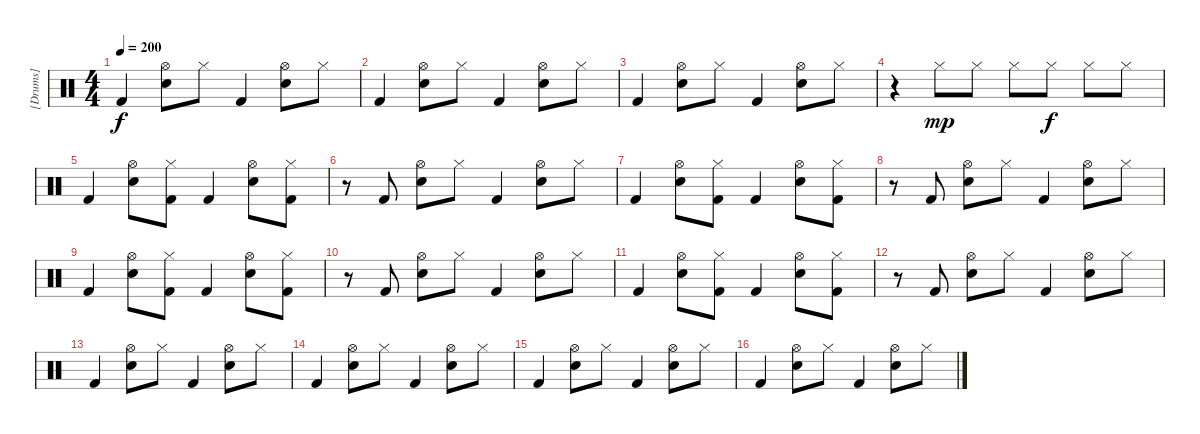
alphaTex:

\track ("[Drums]" "[Drums]") {instrument percussion}
\staff {score}
\articulation defaults
\ts (4 4)
\tempo 200
\clef neutral
\ks c "Kick (hit) 2".4{dy f}
("Hi-Hat (open)" "Electric Snare (hit)").8 "Hi-Hat (closed)".8 "Kick (hit) 2".4 ("Hi-Hat (open)" "Electric Snare (hit)").8 "Hi-Hat (closed)".8 |
"Kick (hit) 2".4 ("Hi-Hat (open)" "Electric Snare (hit)").8 "Hi-Hat (closed)".8 "Kick (hit) 2".4 ("Hi-Hat (open)" "Electric Snare (hit)").8 "Hi-Hat (closed)".8 |
"Kick (hit) 2".4 ("Hi-Hat (open)" "Electric Snare (hit)").8 "Hi-Hat (closed)".8 "Kick (hit) 2".4 ("Hi-Hat (open)" "Electric Snare (hit)").8 "Hi-Hat (closed)".8 |
r.4 "Hi-Hat (closed)".8{dy mp} "Hi-Hat (closed)".8 "Hi-Hat (closed)".8 "Hi-Hat (closed)".8{dy f} "Hi-Hat (closed)".8 "Hi-Hat (closed)".8 |
"Kick (hit) 2".4 ("Hi-Hat (open)" "Electric Snare (hit)").8 ("Hi-Hat (closed)" "Kick (hit) 2").8 "Kick (hit) 2".4 ("Hi-Hat (open)" "Electric Snare (hit)").8 ("Hi-Hat (closed)" "Kick (hit) 2").8 |
r.8 "Kick (hit) 2".8 ("Hi-Hat (open)" "Electric Snare (hit)").8 "Hi-Hat (closed)".8 "Kick (hit) 2".4 ("Hi-Hat (open)" "Electric Snare (hit)").8 "Hi-Hat (closed)".8 |
"Kick (hit) 2".4 ("Hi-Hat (open)" "Electric Snare (hit)").8 ("Hi-Hat (closed)" "Kick (hit) 2").8 "Kick (hit) 2".4 ("Hi-Hat (open)" "Electric Snare (hit)").8 ("Hi-Hat (closed)" "Kick (hit) 2").8 |
r.8 "Kick (hit) 2".8 ("Hi-Hat (open)" "Electric Snare (hit)").8 "Hi-Hat (closed)".8 "Kick (hit) 2".4 ("Hi-Hat (open)" "Electric Snare (hit)").8 "Hi-Hat (closed)".8 |
"Kick (hit) 2".4 ("Hi-Hat (open)" "Electric Snare (hit)").8 ("Hi-Hat (closed)" "Kick (hit) 2").8 "Kick (hit) 2".4 ("Hi-Hat (open)" "Electric Snare (hit)").8 ("Hi-Hat (closed)" "Kick (hit) 2").8 |
r.8 "Kick (hit) 2".8 ("Hi-Hat (open)" "Electric Snare (hit)").8 "Hi-Hat (closed)".8 "Kick (hit) 2".4 ("Hi-Hat (open)" "Electric Snare (hit)").8 "Hi-Hat (closed)".8 |
"Kick (hit) 2".4 ("Hi-Hat (open)" "Electric Snare (hit)").8 ("Hi-Hat (closed)" "Kick (hit) 2").8 "Kick (hit) 2".4 ("Hi-Hat (open)" "Electric Snare (hit)").8 ("Hi-Hat (closed)" "Kick (hit) 2").8 |
r.8 "Kick (hit) 2".8 ("Hi-Hat (open)" "Electric Snare (hit)").8 "Hi-Hat (closed)".8 "Kick (hit) 2".4 ("Hi-Hat (open)" "Electric Snare (hit)").8 "Hi-Hat (closed)".8 |
"Kick (hit) 2".4 ("Hi-Hat (open)" "Electric Snare (hit)").8 "Hi-Hat (closed)".8 "Kick (hit) 2".4 ("Hi-Hat (open)" "Electric Snare (hit)").8 "Hi-Hat (closed)".8 |
"Kick (hit) 2".4 ("Hi-Hat (open)" "Electric Snare (hit)").8 "Hi-Hat (closed)".8 "Kick (hit) 2".4 ("Hi-Hat (open)" "Electric Snare (hit)").8 "Hi-Hat (closed)".8 |
"Kick (hit) 2".4 ("Hi-Hat (open)" "Electric Snare (hit)").8 "Hi-Hat (closed)".8 "Kick (hit) 2".4 ("Hi-Hat (open)" "Electric Snare (hit)").8 "Hi-Hat (closed)".8 |
"Kick (hit) 2".4 ("Hi-Hat (open)" "Electric Snare (hit)").8 "Hi-Hat (closed)".8 "Kick (hit) 2".4 ("Hi-Hat (open)" "Electric Snare (hit)").8 "Hi-Hat (closed)".8
